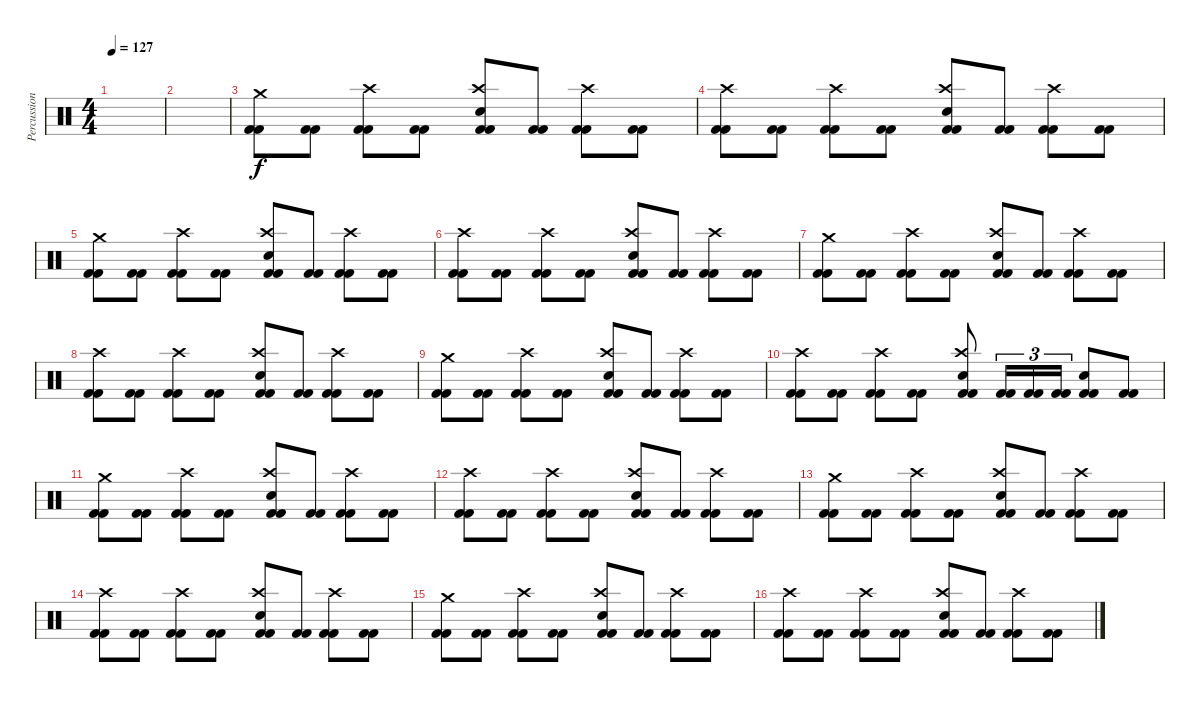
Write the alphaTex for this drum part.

\track ("Percussion" "Percussion") {instrument percussion}
\staff {score}
\articulation defaults
\ts (4 4)
\tempo 127
\clef neutral
\ks c
|
|
("Crash medium (hit)" "Kick (hit) 2" "Kick (hit) 2").8 ("Kick (hit) 2" "Kick (hit) 2").8 ("Crash high (hit)" "Kick (hit) 2" "Kick (hit) 2").8 ("Kick (hit) 2" "Kick (hit) 2").8 ("Crash high (hit)" "Electric Snare (hit)" "Kick (hit) 2" "Kick (hit) 2").8 ("Kick (hit) 2" "Kick (hit) 2").8 ("Crash high (hit)" "Kick (hit) 2" "Kick (hit) 2").8 ("Kick (hit) 2" "Kick (hit) 2").8 |
("Crash high (hit)" "Kick (hit) 2" "Kick (hit) 2").8 ("Kick (hit) 2" "Kick (hit) 2").8 ("Crash high (hit)" "Kick (hit) 2" "Kick (hit) 2").8 ("Kick (hit) 2" "Kick (hit) 2").8 ("Crash high (hit)" "Electric Snare (hit)" "Kick (hit) 2" "Kick (hit) 2").8 ("Kick (hit) 2" "Kick (hit) 2").8 ("Crash high (hit)" "Kick (hit) 2" "Kick (hit) 2").8 ("Kick (hit) 2" "Kick (hit) 2").8 |
("Crash medium (hit)" "Kick (hit) 2" "Kick (hit) 2").8 ("Kick (hit) 2" "Kick (hit) 2").8 ("Crash high (hit)" "Kick (hit) 2" "Kick (hit) 2").8 ("Kick (hit) 2" "Kick (hit) 2").8 ("Crash high (hit)" "Electric Snare (hit)" "Kick (hit) 2" "Kick (hit) 2").8 ("Kick (hit) 2" "Kick (hit) 2").8 ("Crash high (hit)" "Kick (hit) 2" "Kick (hit) 2").8 ("Kick (hit) 2" "Kick (hit) 2").8 |
("Crash high (hit)" "Kick (hit) 2" "Kick (hit) 2").8 ("Kick (hit) 2" "Kick (hit) 2").8 ("Crash high (hit)" "Kick (hit) 2" "Kick (hit) 2").8 ("Kick (hit) 2" "Kick (hit) 2").8 ("Crash high (hit)" "Electric Snare (hit)" "Kick (hit) 2" "Kick (hit) 2").8 ("Kick (hit) 2" "Kick (hit) 2").8 ("Crash high (hit)" "Kick (hit) 2" "Kick (hit) 2").8 ("Kick (hit) 2" "Kick (hit) 2").8 |
("Crash medium (hit)" "Kick (hit) 2" "Kick (hit) 2").8 ("Kick (hit) 2" "Kick (hit) 2").8 ("Crash high (hit)" "Kick (hit) 2" "Kick (hit) 2").8 ("Kick (hit) 2" "Kick (hit) 2").8 ("Crash high (hit)" "Electric Snare (hit)" "Kick (hit) 2" "Kick (hit) 2").8 ("Kick (hit) 2" "Kick (hit) 2").8 ("Crash high (hit)" "Kick (hit) 2" "Kick (hit) 2").8 ("Kick (hit) 2" "Kick (hit) 2").8 |
("Crash high (hit)" "Kick (hit) 2" "Kick (hit) 2").8 ("Kick (hit) 2" "Kick (hit) 2").8 ("Crash high (hit)" "Kick (hit) 2" "Kick (hit) 2").8 ("Kick (hit) 2" "Kick (hit) 2").8 ("Crash high (hit)" "Electric Snare (hit)" "Kick (hit) 2" "Kick (hit) 2").8 ("Kick (hit) 2" "Kick (hit) 2").8 ("Crash high (hit)" "Kick (hit) 2" "Kick (hit) 2").8 ("Kick (hit) 2" "Kick (hit) 2").8 |
("Crash medium (hit)" "Kick (hit) 2" "Kick (hit) 2").8 ("Kick (hit) 2" "Kick (hit) 2").8 ("Crash high (hit)" "Kick (hit) 2" "Kick (hit) 2").8 ("Kick (hit) 2" "Kick (hit) 2").8 ("Crash high (hit)" "Electric Snare (hit)" "Kick (hit) 2" "Kick (hit) 2").8 ("Kick (hit) 2" "Kick (hit) 2").8 ("Crash high (hit)" "Kick (hit) 2" "Kick (hit) 2").8 ("Kick (hit) 2" "Kick (hit) 2").8 |
("Crash high (hit)" "Kick (hit) 2" "Kick (hit) 2").8 ("Kick (hit) 2" "Kick (hit) 2").8 ("Crash high (hit)" "Kick (hit) 2" "Kick (hit) 2").8 ("Kick (hit) 2" "Kick (hit) 2").8 ("Crash high (hit)" "Electric Snare (hit)" "Kick (hit) 2" "Kick (hit) 2").8 ("Kick (hit) 2" "Kick (hit) 2").16{tu (3 2)} ("Kick (hit) 2" "Kick (hit) 2").16{tu (3 2)} ("Kick (hit) 2" "Kick (hit) 2").16{tu (3 2)} ("Electric Snare (hit)" "Kick (hit) 2" "Kick (hit) 2").8 ("Kick (hit) 2" "Kick (hit) 2").8 |
("Crash medium (hit)" "Kick (hit) 2" "Kick (hit) 2").8 ("Kick (hit) 2" "Kick (hit) 2").8 ("Crash high (hit)" "Kick (hit) 2" "Kick (hit) 2").8 ("Kick (hit) 2" "Kick (hit) 2").8 ("Crash high (hit)" "Electric Snare (hit)" "Kick (hit) 2" "Kick (hit) 2").8 ("Kick (hit) 2" "Kick (hit) 2").8 ("Crash high (hit)" "Kick (hit) 2" "Kick (hit) 2").8 ("Kick (hit) 2" "Kick (hit) 2").8 |
("Crash high (hit)" "Kick (hit) 2" "Kick (hit) 2").8 ("Kick (hit) 2" "Kick (hit) 2").8 ("Crash high (hit)" "Kick (hit) 2" "Kick (hit) 2").8 ("Kick (hit) 2" "Kick (hit) 2").8 ("Crash high (hit)" "Electric Snare (hit)" "Kick (hit) 2" "Kick (hit) 2").8 ("Kick (hit) 2" "Kick (hit) 2").8 ("Crash high (hit)" "Kick (hit) 2" "Kick (hit) 2").8 ("Kick (hit) 2" "Kick (hit) 2").8 |
("Crash medium (hit)" "Kick (hit) 2" "Kick (hit) 2").8 ("Kick (hit) 2" "Kick (hit) 2").8 ("Crash high (hit)" "Kick (hit) 2" "Kick (hit) 2").8 ("Kick (hit) 2" "Kick (hit) 2").8 ("Crash high (hit)" "Electric Snare (hit)" "Kick (hit) 2" "Kick (hit) 2").8 ("Kick (hit) 2" "Kick (hit) 2").8 ("Crash high (hit)" "Kick (hit) 2" "Kick (hit) 2").8 ("Kick (hit) 2" "Kick (hit) 2").8 |
("Crash high (hit)" "Kick (hit) 2" "Kick (hit) 2").8 ("Kick (hit) 2" "Kick (hit) 2").8 ("Crash high (hit)" "Kick (hit) 2" "Kick (hit) 2").8 ("Kick (hit) 2" "Kick (hit) 2").8 ("Crash high (hit)" "Electric Snare (hit)" "Kick (hit) 2" "Kick (hit) 2").8 ("Kick (hit) 2" "Kick (hit) 2").8 ("Crash high (hit)" "Kick (hit) 2" "Kick (hit) 2").8 ("Kick (hit) 2" "Kick (hit) 2").8 |
("Crash medium (hit)" "Kick (hit) 2" "Kick (hit) 2").8 ("Kick (hit) 2" "Kick (hit) 2").8 ("Crash high (hit)" "Kick (hit) 2" "Kick (hit) 2").8 ("Kick (hit) 2" "Kick (hit) 2").8 ("Crash high (hit)" "Electric Snare (hit)" "Kick (hit) 2" "Kick (hit) 2").8 ("Kick (hit) 2" "Kick (hit) 2").8 ("Crash high (hit)" "Kick (hit) 2" "Kick (hit) 2").8 ("Kick (hit) 2" "Kick (hit) 2").8 |
("Crash high (hit)" "Kick (hit) 2" "Kick (hit) 2").8 ("Kick (hit) 2" "Kick (hit) 2").8 ("Crash high (hit)" "Kick (hit) 2" "Kick (hit) 2").8 ("Kick (hit) 2" "Kick (hit) 2").8 ("Crash high (hit)" "Electric Snare (hit)" "Kick (hit) 2" "Kick (hit) 2").8 ("Kick (hit) 2" "Kick (hit) 2").8 ("Crash high (hit)" "Kick (hit) 2" "Kick (hit) 2").8 ("Kick (hit) 2" "Kick (hit) 2").8
